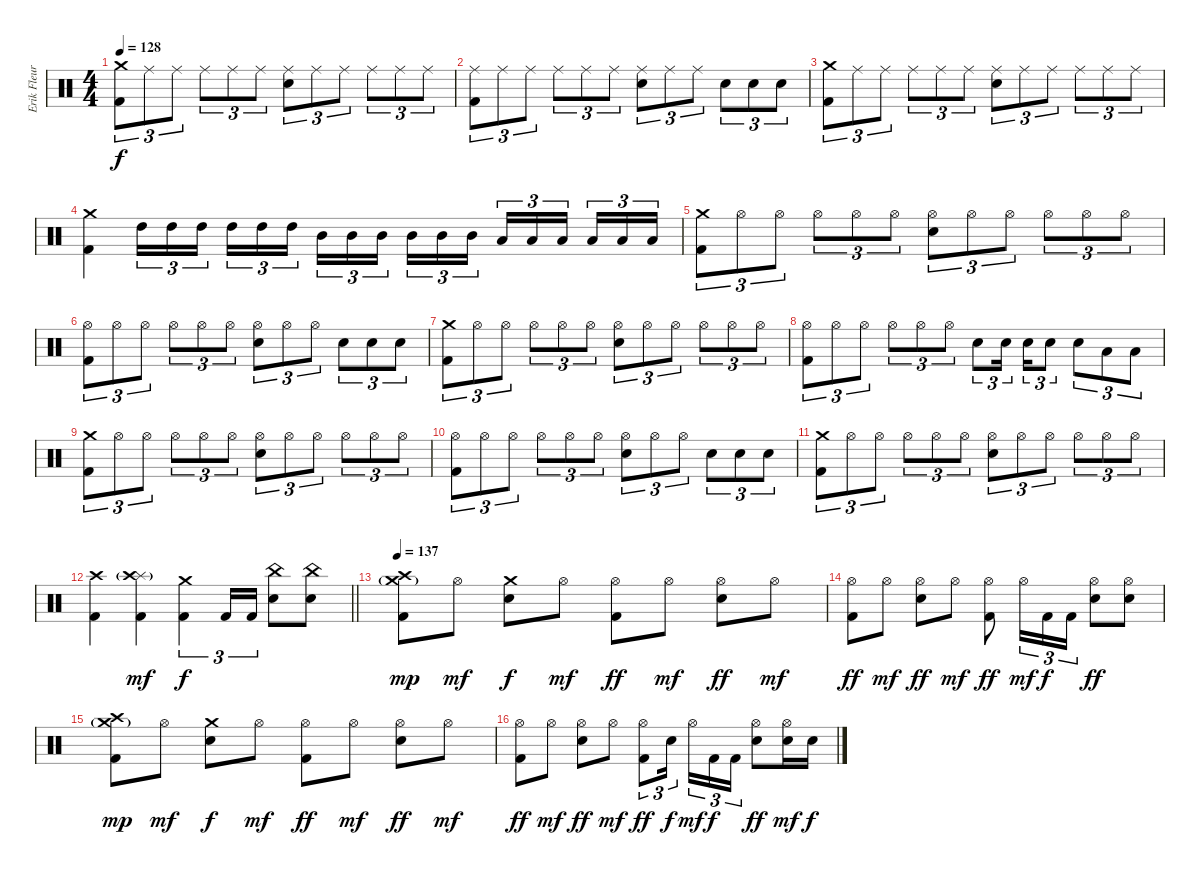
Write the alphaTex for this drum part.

\track ("Erik Fleuren" "Erik Fleur") {instrument percussion}
\staff {score}
\articulation defaults
\ts (4 4)
\tempo 128
\clef neutral
\ks c
("Crash medium (hit)" "Kick (hit) 2").8{tu (3 2) dy f} "Ride (middle)".8{tu (3 2)} "Ride (middle)".8{tu (3 2)} "Ride (middle)".8{tu (3 2)} "Ride (middle)".8{tu (3 2)} "Ride (middle)".8{tu (3 2)} ("Ride (middle)" "Electric Snare (hit)").8{tu (3 2)} "Ride (middle)".8{tu (3 2)} "Ride (middle)".8{tu (3 2)} "Ride (middle)".8{tu (3 2)} "Ride (middle)".8{tu (3 2)} "Ride (middle)".8{tu (3 2)} |
("Ride (middle)" "Kick (hit) 2").8{tu (3 2)} "Ride (middle)".8{tu (3 2)} "Ride (middle)".8{tu (3 2)} "Ride (middle)".8{tu (3 2)} "Ride (middle)".8{tu (3 2)} "Ride (middle)".8{tu (3 2)} ("Ride (middle)" "Electric Snare (hit)").8{tu (3 2)} "Ride (middle)".8{tu (3 2)} "Ride (middle)".8{tu (3 2)} "Electric Snare (hit)".8{tu (3 2)} "Electric Snare (hit)".8{tu (3 2)} "Electric Snare (hit)".8{tu (3 2)} |
("Crash medium (hit)" "Kick (hit) 2").8{tu (3 2)} "Ride (middle)".8{tu (3 2)} "Ride (middle)".8{tu (3 2)} "Ride (middle)".8{tu (3 2)} "Ride (middle)".8{tu (3 2)} "Ride (middle)".8{tu (3 2)} ("Ride (middle)" "Electric Snare (hit)").8{tu (3 2)} "Ride (middle)".8{tu (3 2)} "Ride (middle)".8{tu (3 2)} "Ride (middle)".8{tu (3 2)} "Ride (middle)".8{tu (3 2)} "Ride (middle)".8{tu (3 2)} |
("Crash medium (hit)" "Kick (hit) 2").4 "High Tom (hit)".16{tu (3 2)} "High Tom (hit)".16{tu (3 2)} "High Tom (hit)".16{tu (3 2) beam splitsecondary} "High Tom (hit)".16{tu (3 2)} "High Tom (hit)".16{tu (3 2)} "High Tom (hit)".16{tu (3 2)} "Mid Tom (hit)".16{tu (3 2)} "Mid Tom (hit)".16{tu (3 2)} "Mid Tom (hit)".16{tu (3 2) beam splitsecondary} "Mid Tom (hit)".16{tu (3 2)} "Mid Tom (hit)".16{tu (3 2)} "Mid Tom (hit)".16{tu (3 2)} "Low Tom (hit)".16{tu (3 2)} "Low Tom (hit)".16{tu (3 2)} "Low Tom (hit)".16{tu (3 2) beam splitsecondary} "Low Tom (hit)".16{tu (3 2)} "Low Tom (hit)".16{tu (3 2)} "Low Tom (hit)".16{tu (3 2)} |
("Crash medium (hit)" "Kick (hit) 2").8{tu (3 2)} "Hi-Hat (open)".8{tu (3 2)} "Hi-Hat (open)".8{tu (3 2)} "Hi-Hat (open)".8{tu (3 2)} "Hi-Hat (open)".8{tu (3 2)} "Hi-Hat (open)".8{tu (3 2)} ("Hi-Hat (open)" "Electric Snare (hit)").8{tu (3 2)} "Hi-Hat (open)".8{tu (3 2)} "Hi-Hat (open)".8{tu (3 2)} "Hi-Hat (open)".8{tu (3 2)} "Hi-Hat (open)".8{tu (3 2)} "Hi-Hat (open)".8{tu (3 2)} |
("Hi-Hat (open)" "Kick (hit) 2").8{tu (3 2)} "Hi-Hat (open)".8{tu (3 2)} "Hi-Hat (open)".8{tu (3 2)} "Hi-Hat (open)".8{tu (3 2)} "Hi-Hat (open)".8{tu (3 2)} "Hi-Hat (open)".8{tu (3 2)} ("Hi-Hat (open)" "Electric Snare (hit)").8{tu (3 2)} "Hi-Hat (open)".8{tu (3 2)} "Hi-Hat (open)".8{tu (3 2)} "Electric Snare (hit)".8{tu (3 2)} "Electric Snare (hit)".8{tu (3 2)} "Electric Snare (hit)".8{tu (3 2)} |
("Crash medium (hit)" "Kick (hit) 2").8{tu (3 2)} "Hi-Hat (open)".8{tu (3 2)} "Hi-Hat (open)".8{tu (3 2)} "Hi-Hat (open)".8{tu (3 2)} "Hi-Hat (open)".8{tu (3 2)} "Hi-Hat (open)".8{tu (3 2)} ("Hi-Hat (open)" "Electric Snare (hit)").8{tu (3 2)} "Hi-Hat (open)".8{tu (3 2)} "Hi-Hat (open)".8{tu (3 2)} "Hi-Hat (open)".8{tu (3 2)} "Hi-Hat (open)".8{tu (3 2)} "Hi-Hat (open)".8{tu (3 2)} |
("Hi-Hat (open)" "Kick (hit) 2").8{tu (3 2)} "Hi-Hat (open)".8{tu (3 2)} "Hi-Hat (open)".8{tu (3 2)} "Hi-Hat (open)".8{tu (3 2)} "Hi-Hat (open)".8{tu (3 2)} "Hi-Hat (open)".8{tu (3 2)} "Electric Snare (hit)".8{tu (3 2)} "Electric Snare (hit)".16{tu (3 2) beam splitsecondary} "Electric Snare (hit)".16{tu (3 2)} "Electric Snare (hit)".8{tu (3 2)} "Electric Snare (hit)".8{tu (3 2)} "Low Tom (hit)".8{tu (3 2)} "Low Tom (hit)".8{tu (3 2)} |
("Crash medium (hit)" "Kick (hit) 2").8{tu (3 2)} "Hi-Hat (open)".8{tu (3 2)} "Hi-Hat (open)".8{tu (3 2)} "Hi-Hat (open)".8{tu (3 2)} "Hi-Hat (open)".8{tu (3 2)} "Hi-Hat (open)".8{tu (3 2)} ("Hi-Hat (open)" "Electric Snare (hit)").8{tu (3 2)} "Hi-Hat (open)".8{tu (3 2)} "Hi-Hat (open)".8{tu (3 2)} "Hi-Hat (open)".8{tu (3 2)} "Hi-Hat (open)".8{tu (3 2)} "Hi-Hat (open)".8{tu (3 2)} |
("Hi-Hat (open)" "Kick (hit) 2").8{tu (3 2)} "Hi-Hat (open)".8{tu (3 2)} "Hi-Hat (open)".8{tu (3 2)} "Hi-Hat (open)".8{tu (3 2)} "Hi-Hat (open)".8{tu (3 2)} "Hi-Hat (open)".8{tu (3 2)} ("Hi-Hat (open)" "Electric Snare (hit)").8{tu (3 2)} "Hi-Hat (open)".8{tu (3 2)} "Hi-Hat (open)".8{tu (3 2)} "Electric Snare (hit)".8{tu (3 2)} "Electric Snare (hit)".8{tu (3 2)} "Electric Snare (hit)".8{tu (3 2)} |
("Crash medium (hit)" "Kick (hit) 2").8{tu (3 2)} "Hi-Hat (open)".8{tu (3 2)} "Hi-Hat (open)".8{tu (3 2)} "Hi-Hat (open)".8{tu (3 2)} "Hi-Hat (open)".8{tu (3 2)} "Hi-Hat (open)".8{tu (3 2)} ("Hi-Hat (open)" "Electric Snare (hit)").8{tu (3 2)} "Hi-Hat (open)".8{tu (3 2)} "Hi-Hat (open)".8{tu (3 2)} "Hi-Hat (open)".8{tu (3 2)} "Hi-Hat (open)".8{tu (3 2)} "Hi-Hat (open)".8{tu (3 2)} |
\barLineRight lightlight
("Crash high (hit)" "Kick (hit) 2").4 ("Splash (hit)"{g} "Crash high (hit)" "Kick (hit) 2").4{dy mf} ("Crash medium (hit)" "Kick (hit) 2").4{tu (3 2) dy f} "Kick (hit) 2".16{tu (3 2)} "Kick (hit) 2".16{tu (3 2)} ("China (hit)" "Electric Snare (hit)").8 ("China (hit)" "Electric Snare (hit)").8 |
\tempo 137
("Crash high (hit)" "Crash medium (hit)"{g} "Kick (hit) 2").8{dy mp} "Hi-Hat (open)".8{dy mf} ("Crash medium (hit)" "Electric Snare (hit)").8{dy f} "Hi-Hat (open)".8{dy mf} ("Hi-Hat (open)" "Kick (hit) 2").8{dy ff} "Hi-Hat (open)".8{dy mf} ("Hi-Hat (open)" "Electric Snare (hit)").8{dy ff} "Hi-Hat (open)".8{dy mf} |
("Hi-Hat (open)" "Kick (hit) 2").8{dy ff} "Hi-Hat (open)".8{dy mf} ("Hi-Hat (open)" "Electric Snare (hit)").8{dy ff} "Hi-Hat (open)".8{dy mf} ("Hi-Hat (open)" "Kick (hit) 2").8{dy ff} "Hi-Hat (open)".16{tu (3 2) dy mf} "Kick (hit) 2".16{tu (3 2) dy f} "Kick (hit) 2".16{tu (3 2)} ("Hi-Hat (open)" "Electric Snare (hit)").8{dy ff} ("Hi-Hat (open)" "Electric Snare (hit)").8 |
("Crash high (hit)" "Crash medium (hit)"{g} "Kick (hit) 2").8{dy mp} "Hi-Hat (open)".8{dy mf} ("Crash medium (hit)" "Electric Snare (hit)").8{dy f} "Hi-Hat (open)".8{dy mf} ("Hi-Hat (open)" "Kick (hit) 2").8{dy ff} "Hi-Hat (open)".8{dy mf} ("Hi-Hat (open)" "Electric Snare (hit)").8{dy ff} "Hi-Hat (open)".8{dy mf} |
("Hi-Hat (open)" "Kick (hit) 2").8{dy ff} "Hi-Hat (open)".8{dy mf} ("Hi-Hat (open)" "Electric Snare (hit)").8{dy ff} "Hi-Hat (open)".8{dy mf} ("Hi-Hat (open)" "Kick (hit) 2").8{tu (3 2) dy ff} "Electric Snare (hit)".16{tu (3 2) dy f beam splitsecondary} "Hi-Hat (open)".16{tu (3 2) dy mf} "Kick (hit) 2".16{tu (3 2) dy f} "Kick (hit) 2".16{tu (3 2)} ("Hi-Hat (open)" "Electric Snare (hit)").8{dy ff} ("Hi-Hat (open)" "Electric Snare (hit)").16{dy mf} "Electric Snare (hit)".16{dy f}
